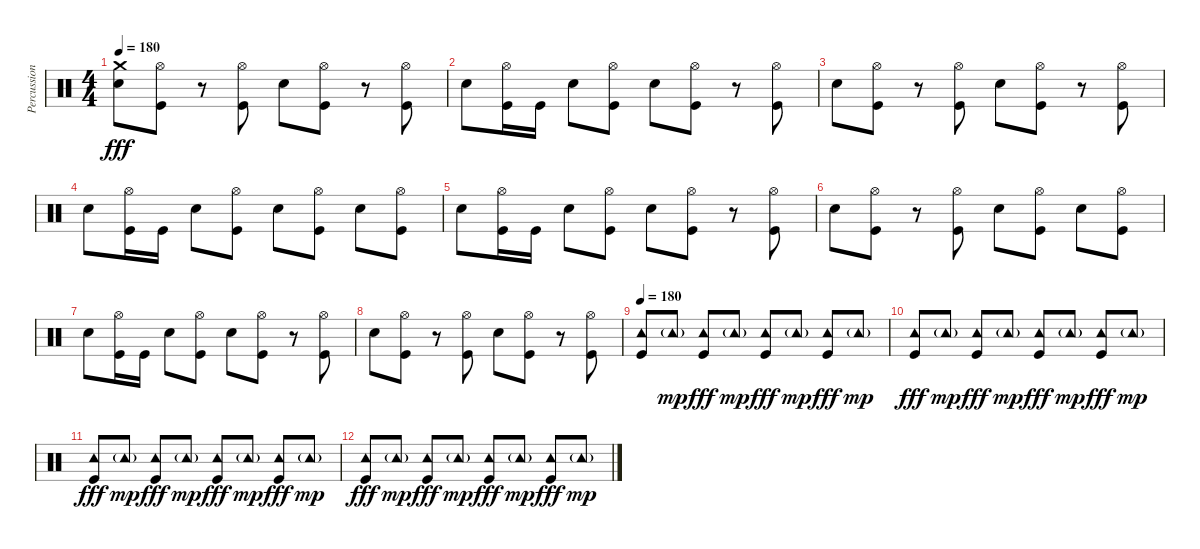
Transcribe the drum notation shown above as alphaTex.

\track ("Percussion" "Percussion") {instrument percussion}
\staff {score}
\articulation defaults
\ts (4 4)
\tempo 180
\clef neutral
\ks c
("Crash medium (hit)" "Electric Snare (hit)").8{dy fff} ("Hi-Hat (open)" "Kick (hit)").8 r.8 ("Hi-Hat (open)" "Kick (hit)").8 "Electric Snare (hit)".8 ("Hi-Hat (open)" "Kick (hit)").8 r.8 ("Hi-Hat (open)" "Kick (hit)").8 |
"Electric Snare (hit)".8 ("Hi-Hat (open)" "Kick (hit)").16 "Kick (hit)".16 "Electric Snare (hit)".8 ("Hi-Hat (open)" "Kick (hit)").8 "Electric Snare (hit)".8 ("Hi-Hat (open)" "Kick (hit)").8 r.8 ("Hi-Hat (open)" "Kick (hit)").8 |
"Electric Snare (hit)".8 ("Hi-Hat (open)" "Kick (hit)").8 r.8 ("Hi-Hat (open)" "Kick (hit)").8 "Electric Snare (hit)".8 ("Hi-Hat (open)" "Kick (hit)").8 r.8 ("Hi-Hat (open)" "Kick (hit)").8 |
"Electric Snare (hit)".8 ("Hi-Hat (open)" "Kick (hit)").16 "Kick (hit)".16 "Electric Snare (hit)".8 ("Hi-Hat (open)" "Kick (hit)").8 "Electric Snare (hit)".8 ("Hi-Hat (open)" "Kick (hit)").8 "Electric Snare (hit)".8 ("Hi-Hat (open)" "Kick (hit)").8 |
"Electric Snare (hit)".8 ("Hi-Hat (open)" "Kick (hit)").16 "Kick (hit)".16 "Electric Snare (hit)".8 ("Hi-Hat (open)" "Kick (hit)").8 "Electric Snare (hit)".8 ("Hi-Hat (open)" "Kick (hit)").8 r.8 ("Hi-Hat (open)" "Kick (hit)").8 |
"Electric Snare (hit)".8 ("Hi-Hat (open)" "Kick (hit)").8 r.8 ("Hi-Hat (open)" "Kick (hit)").8 "Electric Snare (hit)".8 ("Hi-Hat (open)" "Kick (hit)").8 "Electric Snare (hit)".8 ("Hi-Hat (open)" "Kick (hit)").8 |
"Electric Snare (hit)".8 ("Hi-Hat (open)" "Kick (hit)").16 "Kick (hit)".16 "Electric Snare (hit)".8 ("Hi-Hat (open)" "Kick (hit)").8 "Electric Snare (hit)".8 ("Hi-Hat (open)" "Kick (hit)").8 r.8 ("Hi-Hat (open)" "Kick (hit)").8 |
"Electric Snare (hit)".8 ("Hi-Hat (open)" "Kick (hit)").8 r.8 ("Hi-Hat (open)" "Kick (hit)").8 "Electric Snare (hit)".8 ("Hi-Hat (open)" "Kick (hit)").8 r.8 ("Hi-Hat (open)" "Kick (hit)").8 |
\tempo 180
("Tambourine (hit)" "Kick (hit)").8 "Tambourine (hit)"{g}.8{dy mp} ("Tambourine (hit)" "Kick (hit)").8{dy fff} "Tambourine (hit)"{g}.8{dy mp} ("Tambourine (hit)" "Kick (hit)").8{dy fff} "Tambourine (hit)"{g}.8{dy mp} ("Tambourine (hit)" "Kick (hit)").8{dy fff} "Tambourine (hit)"{g}.8{dy mp} |
("Tambourine (hit)" "Kick (hit)").8{dy fff} "Tambourine (hit)"{g}.8{dy mp} ("Tambourine (hit)" "Kick (hit)").8{dy fff} "Tambourine (hit)"{g}.8{dy mp} ("Tambourine (hit)" "Kick (hit)").8{dy fff} "Tambourine (hit)"{g}.8{dy mp} ("Tambourine (hit)" "Kick (hit)").8{dy fff} "Tambourine (hit)"{g}.8{dy mp} |
("Tambourine (hit)" "Kick (hit)").8{dy fff} "Tambourine (hit)"{g}.8{dy mp} ("Tambourine (hit)" "Kick (hit)").8{dy fff} "Tambourine (hit)"{g}.8{dy mp} ("Tambourine (hit)" "Kick (hit)").8{dy fff} "Tambourine (hit)"{g}.8{dy mp} ("Tambourine (hit)" "Kick (hit)").8{dy fff} "Tambourine (hit)"{g}.8{dy mp} |
("Tambourine (hit)" "Kick (hit)").8{dy fff} "Tambourine (hit)"{g}.8{dy mp} ("Tambourine (hit)" "Kick (hit)").8{dy fff} "Tambourine (hit)"{g}.8{dy mp} ("Tambourine (hit)" "Kick (hit)").8{dy fff} "Tambourine (hit)"{g}.8{dy mp} ("Tambourine (hit)" "Kick (hit)").8{dy fff} "Tambourine (hit)"{g}.8{dy mp}
